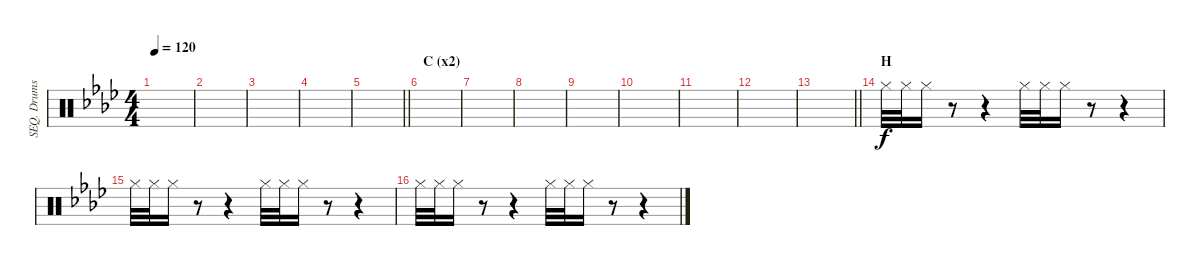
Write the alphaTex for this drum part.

\track ("SEQ. Drums" "SEQ. Drums") {instrument percussion}
\staff {score}
\articulation defaults
\ts (4 4)
\tempo 120
\clef neutral
\ks ab
|
|
|
|
\barLineRight lightlight
|
\section ("" "C (x2)")
|
|
|
|
|
|
|
\barLineRight lightlight
|
\section ("" "H")
"Hi-Hat (closed)".32 "Hi-Hat (closed)".32 "Hi-Hat (closed)".16 r.8 r.4 "Hi-Hat (closed)".32 "Hi-Hat (closed)".32 "Hi-Hat (closed)".16 r.8 r.4 |
"Hi-Hat (closed)".32 "Hi-Hat (closed)".32 "Hi-Hat (closed)".16 r.8 r.4 "Hi-Hat (closed)".32 "Hi-Hat (closed)".32 "Hi-Hat (closed)".16 r.8 r.4 |
"Hi-Hat (closed)".32 "Hi-Hat (closed)".32 "Hi-Hat (closed)".16 r.8 r.4 "Hi-Hat (closed)".32 "Hi-Hat (closed)".32 "Hi-Hat (closed)".16 r.8 r.4
